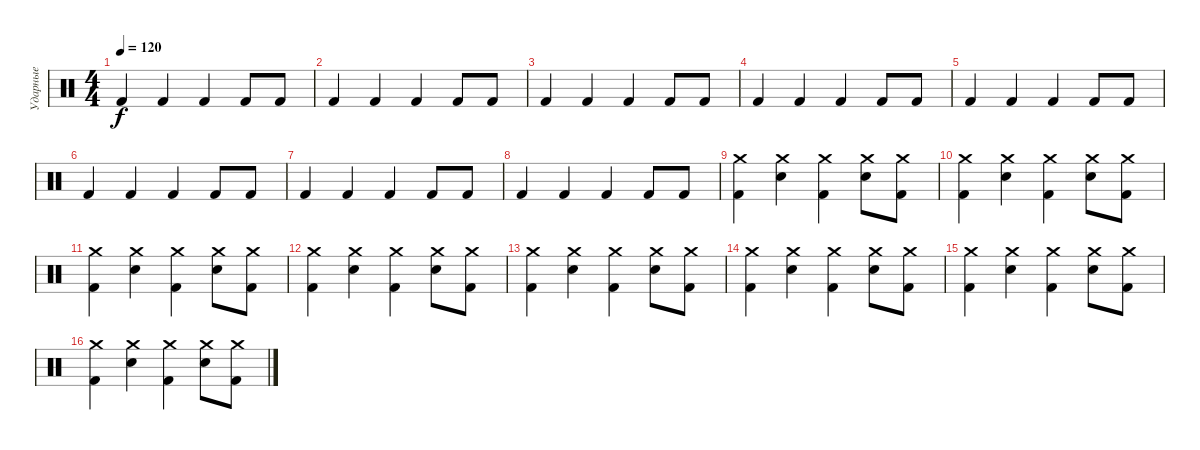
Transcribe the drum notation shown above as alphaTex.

\track ("Ударные" "Ударные") {instrument percussion}
\staff {score}
\articulation defaults
\ts (4 4)
\tempo 120
\clef neutral
\ks c "Kick (hit) 2".4{dy f} "Kick (hit) 2".4 "Kick (hit) 2".4 "Kick (hit) 2".8 "Kick (hit) 2".8
|
"Kick (hit) 2".4 "Kick (hit) 2".4 "Kick (hit) 2".4 "Kick (hit) 2".8 "Kick (hit) 2".8 |
"Kick (hit) 2".4 "Kick (hit) 2".4 "Kick (hit) 2".4 "Kick (hit) 2".8 "Kick (hit) 2".8 |
"Kick (hit) 2".4 "Kick (hit) 2".4 "Kick (hit) 2".4 "Kick (hit) 2".8 "Kick (hit) 2".8 |
"Kick (hit) 2".4 "Kick (hit) 2".4 "Kick (hit) 2".4 "Kick (hit) 2".8 "Kick (hit) 2".8 |
"Kick (hit) 2".4 "Kick (hit) 2".4 "Kick (hit) 2".4 "Kick (hit) 2".8 "Kick (hit) 2".8 |
"Kick (hit) 2".4 "Kick (hit) 2".4 "Kick (hit) 2".4 "Kick (hit) 2".8 "Kick (hit) 2".8 |
"Kick (hit) 2".4 "Kick (hit) 2".4 "Kick (hit) 2".4 "Kick (hit) 2".8 "Kick (hit) 2".8 |
("Crash medium (hit)" "Kick (hit) 2").4 ("Crash medium (hit)" "Electric Snare (hit)").4 ("Crash medium (hit)" "Kick (hit) 2").4 ("Crash medium (hit)" "Electric Snare (hit)").8 ("Crash medium (hit)" "Kick (hit) 2").8 |
("Crash medium (hit)" "Kick (hit) 2").4 ("Crash medium (hit)" "Electric Snare (hit)").4 ("Crash medium (hit)" "Kick (hit) 2").4 ("Crash medium (hit)" "Electric Snare (hit)").8 ("Crash medium (hit)" "Kick (hit) 2").8 |
("Crash medium (hit)" "Kick (hit) 2").4 ("Crash medium (hit)" "Electric Snare (hit)").4 ("Crash medium (hit)" "Kick (hit) 2").4 ("Crash medium (hit)" "Electric Snare (hit)").8 ("Crash medium (hit)" "Kick (hit) 2").8 |
("Crash medium (hit)" "Kick (hit) 2").4 ("Crash medium (hit)" "Electric Snare (hit)").4 ("Crash medium (hit)" "Kick (hit) 2").4 ("Crash medium (hit)" "Electric Snare (hit)").8 ("Crash medium (hit)" "Kick (hit) 2").8 |
("Crash medium (hit)" "Kick (hit) 2").4 ("Crash medium (hit)" "Electric Snare (hit)").4 ("Crash medium (hit)" "Kick (hit) 2").4 ("Crash medium (hit)" "Electric Snare (hit)").8 ("Crash medium (hit)" "Kick (hit) 2").8 |
("Crash medium (hit)" "Kick (hit) 2").4 ("Crash medium (hit)" "Electric Snare (hit)").4 ("Crash medium (hit)" "Kick (hit) 2").4 ("Crash medium (hit)" "Electric Snare (hit)").8 ("Crash medium (hit)" "Kick (hit) 2").8 |
("Crash medium (hit)" "Kick (hit) 2").4 ("Crash medium (hit)" "Electric Snare (hit)").4 ("Crash medium (hit)" "Kick (hit) 2").4 ("Crash medium (hit)" "Electric Snare (hit)").8 ("Crash medium (hit)" "Kick (hit) 2").8 |
("Crash medium (hit)" "Kick (hit) 2").4 ("Crash medium (hit)" "Electric Snare (hit)").4 ("Crash medium (hit)" "Kick (hit) 2").4 ("Crash medium (hit)" "Electric Snare (hit)").8 ("Crash medium (hit)" "Kick (hit) 2").8
